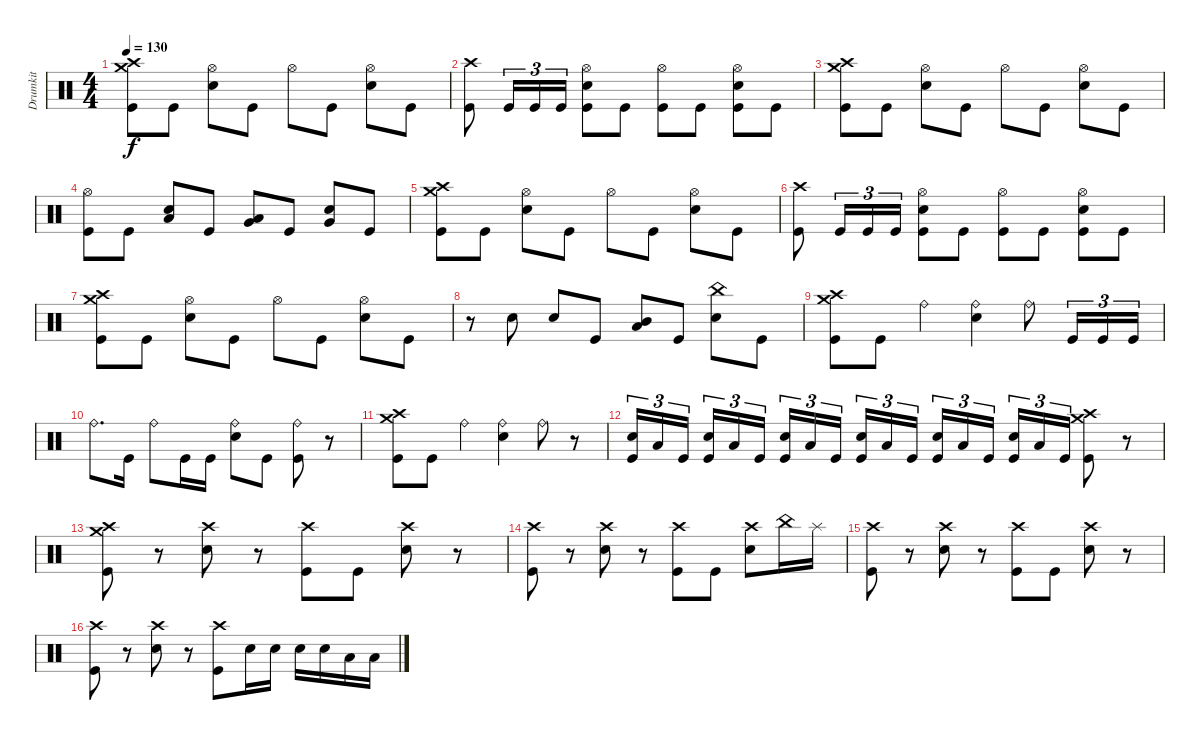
\track ("Drumkit" "Drumkit") {instrument percussion}
\staff {score}
\articulation defaults
\ts (4 4)
\tempo 130
\clef neutral
\ks c
("Kick (hit)" "Crash high (hit)" "Crash medium (hit)").8{dy f} "Kick (hit)".8 ("Snare (hit) 2" "Hi-Hat (open)").8 "Kick (hit)".8 "Hi-Hat (open)".8 "Kick (hit)".8 ("Snare (hit) 2" "Hi-Hat (open)").8 "Kick (hit)".8 |
("Kick (hit)" "Crash high (hit)").8 "Kick (hit)".16{tu (3 2)} "Kick (hit)".16{tu (3 2)} "Kick (hit)".16{tu (3 2)} ("Kick (hit)" "Snare (hit) 2" "Hi-Hat (open)").8 "Kick (hit)".8 ("Kick (hit)" "Hi-Hat (open)").8 "Kick (hit)".8 ("Hi-Hat (open)" "Snare (hit) 2" "Kick (hit)").8 "Kick (hit)".8 |
("Kick (hit)" "Crash high (hit)" "Crash medium (hit)").8 "Kick (hit)".8 ("Snare (hit) 2" "Hi-Hat (open)").8 "Kick (hit)".8 "Hi-Hat (open)".8 "Kick (hit)".8 ("Snare (hit) 2" "Hi-Hat (open)").8 "Kick (hit)".8 |
("Kick (hit)" "Hi-Hat (open)").8 "Kick (hit)".8 ("Snare (hit) 2" "Low Tom (hit)").8 "Kick (hit)".8 ("Low Tom (hit)" "Very Low Tom (hit)").8 "Kick (hit)".8 ("Snare (hit) 2" "Very Low Tom (hit)").8 "Kick (hit)".8 |
("Kick (hit)" "Crash high (hit)" "Crash medium (hit)").8 "Kick (hit)".8 ("Snare (hit) 2" "Hi-Hat (open)").8 "Kick (hit)".8 "Hi-Hat (open)".8 "Kick (hit)".8 ("Snare (hit) 2" "Hi-Hat (open)").8 "Kick (hit)".8 |
("Kick (hit)" "Crash high (hit)").8 "Kick (hit)".16{tu (3 2)} "Kick (hit)".16{tu (3 2)} "Kick (hit)".16{tu (3 2)} ("Kick (hit)" "Snare (hit) 2" "Hi-Hat (open)").8 "Kick (hit)".8 ("Kick (hit)" "Hi-Hat (open)").8 "Kick (hit)".8 ("Hi-Hat (open)" "Snare (hit) 2" "Kick (hit)").8 "Kick (hit)".8 |
("Kick (hit)" "Crash high (hit)" "Crash medium (hit)").8 "Kick (hit)".8 ("Snare (hit) 2" "Hi-Hat (open)").8 "Kick (hit)".8 "Hi-Hat (open)".8 "Kick (hit)".8 ("Snare (hit) 2" "Hi-Hat (open)").8 "Kick (hit)".8 |
r.8 "Snare (hit) 2".8 "Snare (hit) 2".8 "Kick (hit)".8 ("Low Tom (hit)" "Mid Tom (hit)").8 "Kick (hit)".8 ("China (hit)" "Snare (hit) 2").8 "Kick (hit)".8 |
("Crash high (hit)" "Crash medium (hit)" "Kick (hit)").8 "Kick (hit)".8 "Ride (bell)".4 ("Ride (bell)" "Snare (hit) 2").4 "Ride (bell)".8 "Kick (hit)".16{tu (3 2)} "Kick (hit)".16{tu (3 2)} "Kick (hit)".16{tu (3 2)} |
"Ride (bell)".8{d} "Kick (hit)".16 "Ride (bell)".8 "Kick (hit)".16 "Kick (hit)".16 ("Ride (bell)" "Snare (hit) 2").8 "Kick (hit)".8 ("Kick (hit)" "Ride (bell)").8 r.8 |
("Crash high (hit)" "Crash medium (hit)" "Kick (hit)").8 "Kick (hit)".8 "Ride (bell)".4 ("Ride (bell)" "Snare (hit) 2").4 "Ride (bell)".8 r.8 |
("Kick (hit)" "Snare (hit) 2").16{tu (3 2)} "Low Tom (hit)".16{tu (3 2)} "Kick (hit)".16{tu (3 2)} ("Snare (hit) 2" "Kick (hit)").16{tu (3 2)} "Low Tom (hit)".16{tu (3 2)} "Kick (hit)".16{tu (3 2)} ("Kick (hit)" "Snare (hit) 2").16{tu (3 2)} "Low Tom (hit)".16{tu (3 2)} "Kick (hit)".16{tu (3 2)} ("Snare (hit) 2" "Kick (hit)").16{tu (3 2)} "Low Tom (hit)".16{tu (3 2)} "Kick (hit)".16{tu (3 2)} ("Kick (hit)" "Snare (hit) 2").16{tu (3 2)} "Low Tom (hit)".16{tu (3 2)} "Kick (hit)".16{tu (3 2)} ("Kick (hit)" "Snare (hit) 2").16{tu (3 2)} "Low Tom (hit)".16{tu (3 2)} "Kick (hit)".16{tu (3 2)} ("Kick (hit)" "Crash high (hit)" "Crash medium (hit)").8 r.8 |
("Kick (hit)" "Crash high (hit)" "Crash medium (hit)").8 r.8 ("Snare (hit) 2" "Crash high (hit)").8 r.8 ("Kick (hit)" "Crash high (hit)").8 "Kick (hit)".8 ("Crash high (hit)" "Snare (hit) 2").8 r.8 |
("Kick (hit)" "Crash high (hit)").8 r.8 ("Snare (hit) 2" "Crash high (hit)").8 r.8 ("Kick (hit)" "Crash high (hit)").8 "Kick (hit)".8 ("Snare (hit) 2" "Crash high (hit)").8 "China (hit)".16 "Splash (hit)".16 |
("Kick (hit)" "Crash high (hit)").8 r.8 ("Snare (hit) 2" "Crash high (hit)").8 r.8 ("Kick (hit)" "Crash high (hit)").8 "Kick (hit)".8 ("Crash high (hit)" "Snare (hit) 2").8 r.8 |
("Kick (hit)" "Crash high (hit)").8 r.8 ("Snare (hit) 2" "Crash high (hit)").8 r.8 ("Kick (hit)" "Crash high (hit)").8 "Snare (hit) 2".16 "Snare (hit) 2".16 "Snare (hit) 2".16 "Snare (hit) 2".16 "Low Tom (hit)".16 "Low Tom (hit)".16
